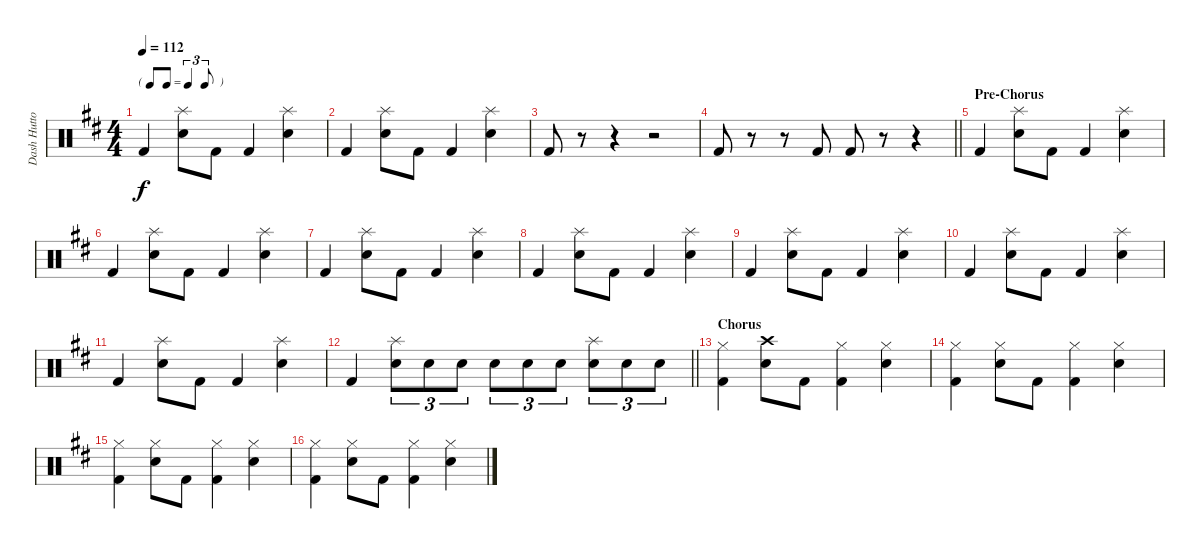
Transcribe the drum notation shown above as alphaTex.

\track ("Dash Hutton" "Dash Hutto") {instrument percussion}
\staff {score}
\articulation defaults
\ts (4 4)
\tf triplet8th
\tempo 112
\clef neutral
\ks d "Kick (hit) 2".4{dy f}
("Splash (hit)" "Snare (hit) 2").8 "Kick (hit) 2".8 "Kick (hit) 2".4 ("Splash (hit)" "Snare (hit) 2").4 |
"Kick (hit) 2".4 ("Splash (hit)" "Snare (hit) 2").8 "Kick (hit) 2".8 "Kick (hit) 2".4 ("Splash (hit)" "Snare (hit) 2").4 |
"Kick (hit) 2".8 r.8 r.4 r.2 |
\barLineRight lightlight "Kick (hit) 2".8
r.8 r.8 "Kick (hit) 2".8 "Kick (hit) 2".8 r.8 r.4 |
\section ("" "Pre-Chorus")
"Kick (hit) 2".4 ("Splash (hit)" "Snare (hit) 2").8 "Kick (hit) 2".8 "Kick (hit) 2".4 ("Splash (hit)" "Snare (hit) 2").4 |
"Kick (hit) 2".4 ("Splash (hit)" "Snare (hit) 2").8 "Kick (hit) 2".8 "Kick (hit) 2".4 ("Splash (hit)" "Snare (hit) 2").4 |
"Kick (hit) 2".4 ("Splash (hit)" "Snare (hit) 2").8 "Kick (hit) 2".8 "Kick (hit) 2".4 ("Splash (hit)" "Snare (hit) 2").4 |
"Kick (hit) 2".4 ("Splash (hit)" "Snare (hit) 2").8 "Kick (hit) 2".8 "Kick (hit) 2".4 ("Splash (hit)" "Snare (hit) 2").4 |
"Kick (hit) 2".4 ("Splash (hit)" "Snare (hit) 2").8 "Kick (hit) 2".8 "Kick (hit) 2".4 ("Splash (hit)" "Snare (hit) 2").4 |
"Kick (hit) 2".4 ("Splash (hit)" "Snare (hit) 2").8 "Kick (hit) 2".8 "Kick (hit) 2".4 ("Splash (hit)" "Snare (hit) 2").4 |
"Kick (hit) 2".4 ("Splash (hit)" "Snare (hit) 2").8 "Kick (hit) 2".8 "Kick (hit) 2".4 ("Splash (hit)" "Snare (hit) 2").4 |
\barLineRight lightlight "Kick (hit) 2".4
("Splash (hit)" "Snare (hit) 2").8{tu (3 2)} "Snare (hit) 2".8{tu (3 2)} "Snare (hit) 2".8{tu (3 2)} "Snare (hit) 2".8{tu (3 2)} "Snare (hit) 2".8{tu (3 2)} "Snare (hit) 2".8{tu (3 2)} ("Splash (hit)" "Snare (hit) 2").8{tu (3 2)} "Snare (hit) 2".8{tu (3 2)} "Snare (hit) 2".8{tu (3 2)} |
\section ("" "Chorus")
("Hi-Hat (closed)" "Kick (hit) 2").4 ("Crash high (hit)" "Snare (hit) 2").8 "Kick (hit) 2".8 ("Hi-Hat (closed)" "Kick (hit) 2").4 ("Hi-Hat (closed)" "Snare (hit) 2").4 |
("Hi-Hat (closed)" "Kick (hit) 2").4 ("Hi-Hat (closed)" "Snare (hit) 2").8 "Kick (hit) 2".8 ("Hi-Hat (closed)" "Kick (hit) 2").4 ("Hi-Hat (closed)" "Snare (hit) 2").4 |
("Hi-Hat (closed)" "Kick (hit) 2").4 ("Hi-Hat (closed)" "Snare (hit) 2").8 "Kick (hit) 2".8 ("Hi-Hat (closed)" "Kick (hit) 2").4 ("Hi-Hat (closed)" "Snare (hit) 2").4 |
("Hi-Hat (closed)" "Kick (hit) 2").4 ("Hi-Hat (closed)" "Snare (hit) 2").8 "Kick (hit) 2".8 ("Hi-Hat (closed)" "Kick (hit) 2").4 ("Hi-Hat (closed)" "Snare (hit) 2").4
